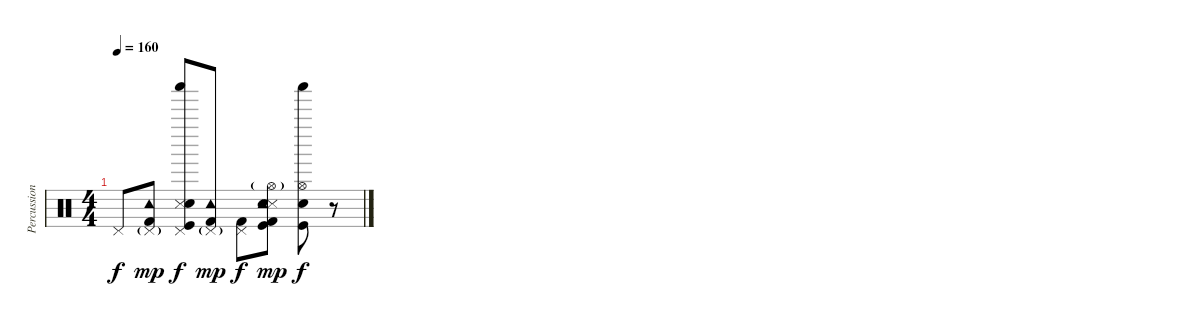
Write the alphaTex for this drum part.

\track ("Percussion" "Percussion") {instrument percussion}
\staff {score}
\articulation defaults
\ts (4 4)
\tempo 160
\clef neutral
\ks c "Pedal Hi-Hat (hit)".8{dy f}
("Pedal Hi-Hat (hit)"{g} "Tambourine (hit)" "Kick (hit) 2").8{dy mp} ("Snare (side stick) 3" "Pedal Hi-Hat (hit)" "Shaker (hit)" "Snare (hit) 2" "Kick (hit)").8{dy f} ("Pedal Hi-Hat (hit)"{g} "Tambourine (hit)" "Kick (hit) 2").8{dy mp} ("Pedal Hi-Hat (hit)" "Kick (hit) 2").8{dy f} ("Snare (side stick) 3" "Hi-Hat (open)"{g} "Tambourine (hit)" "Kick (hit)" "Snare (hit) 2" "Kick (hit) 2").8{dy mp} ("Hi-Hat (open)" "Shaker (hit)" "Snare (hit) 2" "Kick (hit)").8{dy f} r.8
